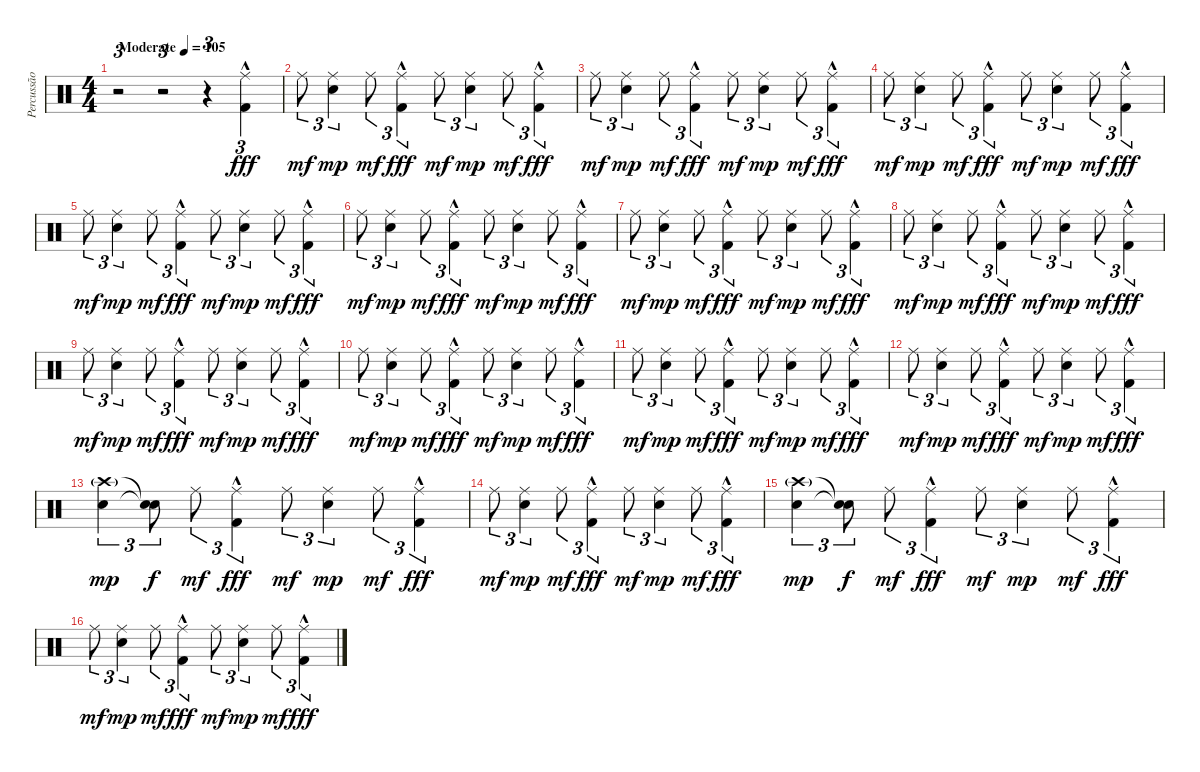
\track ("Percussão" "Percussão") {instrument percussion}
\staff {score}
\articulation defaults
\ts (4 4)
\tempo (105 "Moderate")
\clef neutral
\ks c
r.2{tu (3 2) dy fff} r.2{tu (3 2)} r.4{tu (3 2)} ("Ride (middle)" "Kick (hit) 2"{hac}).4{tu (3 2)} |
"Ride (middle)".8{tu (3 2) dy mf} ("Ride (middle)" "Electric Snare (hit)").4{tu (3 2) dy mp} "Ride (middle)".8{tu (3 2) dy mf} ("Ride (middle)" "Kick (hit) 2"{hac}).4{tu (3 2) dy fff} "Ride (middle)".8{tu (3 2) dy mf} ("Ride (middle)" "Electric Snare (hit)").4{tu (3 2) dy mp} "Ride (middle)".8{tu (3 2) dy mf} ("Ride (middle)" "Kick (hit) 2"{hac}).4{tu (3 2) dy fff} |
"Ride (middle)".8{tu (3 2) dy mf} ("Ride (middle)" "Electric Snare (hit)").4{tu (3 2) dy mp} "Ride (middle)".8{tu (3 2) dy mf} ("Ride (middle)" "Kick (hit) 2"{hac}).4{tu (3 2) dy fff} "Ride (middle)".8{tu (3 2) dy mf} ("Ride (middle)" "Electric Snare (hit)").4{tu (3 2) dy mp} "Ride (middle)".8{tu (3 2) dy mf} ("Ride (middle)" "Kick (hit) 2"{hac}).4{tu (3 2) dy fff} |
"Ride (middle)".8{tu (3 2) dy mf} ("Ride (middle)" "Electric Snare (hit)").4{tu (3 2) dy mp} "Ride (middle)".8{tu (3 2) dy mf} ("Ride (middle)" "Kick (hit) 2"{hac}).4{tu (3 2) dy fff} "Ride (middle)".8{tu (3 2) dy mf} ("Ride (middle)" "Electric Snare (hit)").4{tu (3 2) dy mp} "Ride (middle)".8{tu (3 2) dy mf} ("Ride (middle)" "Kick (hit) 2"{hac}).4{tu (3 2) dy fff} |
"Ride (middle)".8{tu (3 2) dy mf} ("Ride (middle)" "Electric Snare (hit)").4{tu (3 2) dy mp} "Ride (middle)".8{tu (3 2) dy mf} ("Ride (middle)" "Kick (hit) 2"{hac}).4{tu (3 2) dy fff} "Ride (middle)".8{tu (3 2) dy mf} ("Ride (middle)" "Electric Snare (hit)").4{tu (3 2) dy mp} "Ride (middle)".8{tu (3 2) dy mf} ("Ride (middle)" "Kick (hit) 2"{hac}).4{tu (3 2) dy fff} |
"Ride (middle)".8{tu (3 2) dy mf} ("Ride (middle)" "Electric Snare (hit)").4{tu (3 2) dy mp} "Ride (middle)".8{tu (3 2) dy mf} ("Ride (middle)" "Kick (hit) 2"{hac}).4{tu (3 2) dy fff} "Ride (middle)".8{tu (3 2) dy mf} ("Ride (middle)" "Electric Snare (hit)").4{tu (3 2) dy mp} "Ride (middle)".8{tu (3 2) dy mf} ("Ride (middle)" "Kick (hit) 2"{hac}).4{tu (3 2) dy fff} |
"Ride (middle)".8{tu (3 2) dy mf} ("Ride (middle)" "Electric Snare (hit)").4{tu (3 2) dy mp} "Ride (middle)".8{tu (3 2) dy mf} ("Ride (middle)" "Kick (hit) 2"{hac}).4{tu (3 2) dy fff} "Ride (middle)".8{tu (3 2) dy mf} ("Ride (middle)" "Electric Snare (hit)").4{tu (3 2) dy mp} "Ride (middle)".8{tu (3 2) dy mf} ("Ride (middle)" "Kick (hit) 2"{hac}).4{tu (3 2) dy fff} |
"Ride (middle)".8{tu (3 2) dy mf} ("Ride (middle)" "Electric Snare (hit)").4{tu (3 2) dy mp} "Ride (middle)".8{tu (3 2) dy mf} ("Ride (middle)" "Kick (hit) 2"{hac}).4{tu (3 2) dy fff} "Ride (middle)".8{tu (3 2) dy mf} ("Ride (middle)" "Electric Snare (hit)").4{tu (3 2) dy mp} "Ride (middle)".8{tu (3 2) dy mf} ("Ride (middle)" "Kick (hit) 2"{hac}).4{tu (3 2) dy fff} |
"Ride (middle)".8{tu (3 2) dy mf} ("Ride (middle)" "Electric Snare (hit)").4{tu (3 2) dy mp} "Ride (middle)".8{tu (3 2) dy mf} ("Ride (middle)" "Kick (hit) 2"{hac}).4{tu (3 2) dy fff} "Ride (middle)".8{tu (3 2) dy mf} ("Ride (middle)" "Electric Snare (hit)").4{tu (3 2) dy mp} "Ride (middle)".8{tu (3 2) dy mf} ("Ride (middle)" "Kick (hit) 2"{hac}).4{tu (3 2) dy fff} |
"Ride (middle)".8{tu (3 2) dy mf} ("Ride (middle)" "Electric Snare (hit)").4{tu (3 2) dy mp} "Ride (middle)".8{tu (3 2) dy mf} ("Ride (middle)" "Kick (hit) 2"{hac}).4{tu (3 2) dy fff} "Ride (middle)".8{tu (3 2) dy mf} ("Ride (middle)" "Electric Snare (hit)").4{tu (3 2) dy mp} "Ride (middle)".8{tu (3 2) dy mf} ("Ride (middle)" "Kick (hit) 2"{hac}).4{tu (3 2) dy fff} |
"Ride (middle)".8{tu (3 2) dy mf} ("Ride (middle)" "Electric Snare (hit)").4{tu (3 2) dy mp} "Ride (middle)".8{tu (3 2) dy mf} ("Ride (middle)" "Kick (hit) 2"{hac}).4{tu (3 2) dy fff} "Ride (middle)".8{tu (3 2) dy mf} ("Ride (middle)" "Electric Snare (hit)").4{tu (3 2) dy mp} "Ride (middle)".8{tu (3 2) dy mf} ("Ride (middle)" "Kick (hit) 2"{hac}).4{tu (3 2) dy fff} |
"Ride (middle)".8{tu (3 2) dy mf} ("Ride (middle)" "Electric Snare (hit)").4{tu (3 2) dy mp} "Ride (middle)".8{tu (3 2) dy mf} ("Ride (middle)" "Kick (hit) 2"{hac}).4{tu (3 2) dy fff} "Ride (middle)".8{tu (3 2) dy mf} ("Ride (middle)" "Electric Snare (hit)").4{tu (3 2) dy mp} "Ride (middle)".8{tu (3 2) dy mf} ("Ride (middle)" "Kick (hit) 2"{hac}).4{tu (3 2) dy fff} |
("Crash high (hit)"{g} "Electric Snare (hit)").4{tu (3 2) dy mp} ("Snare (hit)"{t} "Snare (hit)"{t}).8{tu (3 2) dy f} "Ride (middle)".8{tu (3 2) dy mf} ("Ride (middle)" "Kick (hit) 2"{hac}).4{tu (3 2) dy fff} "Ride (middle)".8{tu (3 2) dy mf} ("Ride (middle)" "Electric Snare (hit)").4{tu (3 2) dy mp} "Ride (middle)".8{tu (3 2) dy mf} ("Ride (middle)" "Kick (hit) 2"{hac}).4{tu (3 2) dy fff} |
"Ride (middle)".8{tu (3 2) dy mf} ("Ride (middle)" "Electric Snare (hit)").4{tu (3 2) dy mp} "Ride (middle)".8{tu (3 2) dy mf} ("Ride (middle)" "Kick (hit) 2"{hac}).4{tu (3 2) dy fff} "Ride (middle)".8{tu (3 2) dy mf} ("Ride (middle)" "Electric Snare (hit)").4{tu (3 2) dy mp} "Ride (middle)".8{tu (3 2) dy mf} ("Ride (middle)" "Kick (hit) 2"{hac}).4{tu (3 2) dy fff} |
("Crash high (hit)"{g} "Electric Snare (hit)").4{tu (3 2) dy mp} ("Snare (hit)"{t} "Snare (hit)"{t}).8{tu (3 2) dy f} "Ride (middle)".8{tu (3 2) dy mf} ("Ride (middle)" "Kick (hit) 2"{hac}).4{tu (3 2) dy fff} "Ride (middle)".8{tu (3 2) dy mf} ("Ride (middle)" "Electric Snare (hit)").4{tu (3 2) dy mp} "Ride (middle)".8{tu (3 2) dy mf} ("Ride (middle)" "Kick (hit) 2"{hac}).4{tu (3 2) dy fff} |
"Ride (middle)".8{tu (3 2) dy mf} ("Ride (middle)" "Electric Snare (hit)").4{tu (3 2) dy mp} "Ride (middle)".8{tu (3 2) dy mf} ("Ride (middle)" "Kick (hit) 2"{hac}).4{tu (3 2) dy fff} "Ride (middle)".8{tu (3 2) dy mf} ("Ride (middle)" "Electric Snare (hit)").4{tu (3 2) dy mp} "Ride (middle)".8{tu (3 2) dy mf} ("Ride (middle)" "Kick (hit) 2"{hac}).4{tu (3 2) dy fff}
